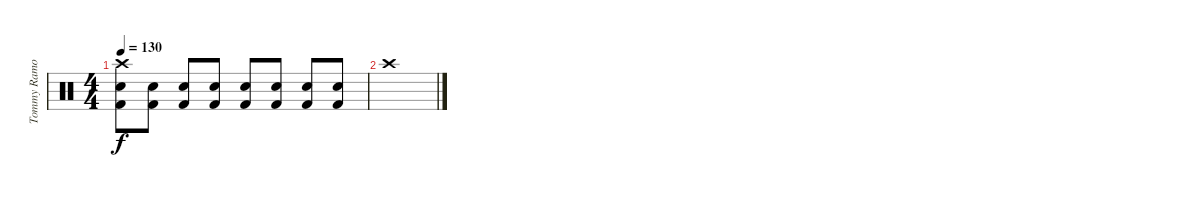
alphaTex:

\track ("Tommy Ramone - Percusion" "Tommy Ramo") {instrument percussion}
\staff {score}
\articulation defaults
\ts (4 4)
\tempo 130
\clef neutral
\ks c
("Crash high (hit)" "Electric Snare (hit)" "Kick (hit) 2").8{dy f} ("Electric Snare (hit)" "Kick (hit) 2").8 ("Electric Snare (hit)" "Kick (hit) 2").8 ("Electric Snare (hit)" "Kick (hit) 2").8 ("Electric Snare (hit)" "Kick (hit) 2").8 ("Electric Snare (hit)" "Kick (hit) 2").8 ("Electric Snare (hit)" "Kick (hit) 2").8 ("Electric Snare (hit)" "Kick (hit) 2").8 |
"Crash high (hit)".1
